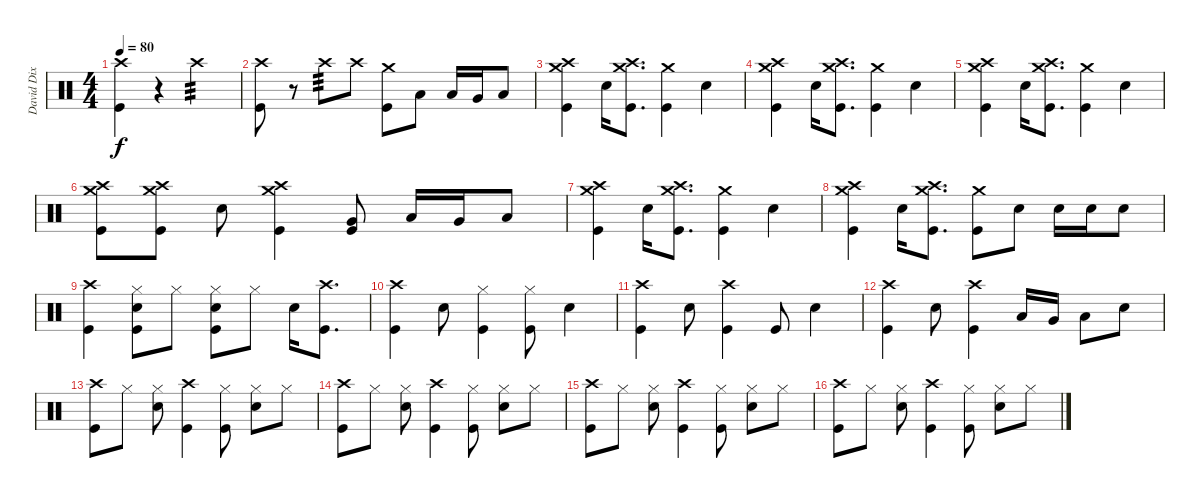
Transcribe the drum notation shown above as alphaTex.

\track ("David Dix Drums" "David Dix ") {instrument percussion}
\staff {score}
\articulation defaults
\ts (4 4)
\tempo 80
\clef neutral
\ks c
("Crash high (hit)" "Kick (hit)").4{dy f} r.4 "Crash high (hit)".2{tp 3} |
("Crash high (hit)" "Kick (hit)").8 r.8 "Crash high (hit)".8{tp 3} "Crash high (hit)".8 ("Crash medium (hit)" "Kick (hit)").8 "Low Tom (hit)".8 "Low Tom (hit)".16 "Very Low Tom (hit)".16 "Low Floor Tom (hit)".8 |
("Crash high (hit)" "Crash medium (hit)" "Kick (hit)").4{volume 14} "Snare (hit) 2".16 ("Crash high (hit)" "Crash medium (hit)" "Kick (hit)").8{d} ("Crash medium (hit)" "Kick (hit)").4 "Snare (hit) 2".4 |
("Crash high (hit)" "Crash medium (hit)" "Kick (hit)").4 "Snare (hit) 2".16 ("Crash high (hit)" "Crash medium (hit)" "Kick (hit)").8{d} ("Crash medium (hit)" "Kick (hit)").4 "Snare (hit) 2".4 |
("Crash high (hit)" "Crash medium (hit)" "Kick (hit)").4 "Snare (hit) 2".16 ("Crash high (hit)" "Crash medium (hit)" "Kick (hit)").8{d} ("Crash medium (hit)" "Kick (hit)").4 "Snare (hit) 2".4 |
("Crash high (hit)" "Crash medium (hit)" "Kick (hit)").8 ("Crash high (hit)" "Crash medium (hit)" "Kick (hit)").8 "Snare (hit) 2".8 ("Crash high (hit)" "Crash medium (hit)" "Kick (hit)").4 ("Very Low Tom (hit)" "Kick (hit)").8 "Low Tom (hit)".16 "Very Low Tom (hit)".16 "Low Floor Tom (hit)".8 |
("Crash high (hit)" "Crash medium (hit)" "Kick (hit)").4 "Snare (hit) 2".16 ("Crash high (hit)" "Crash medium (hit)" "Kick (hit)").8{d} ("Crash medium (hit)" "Kick (hit)").4 "Snare (hit) 2".4 |
("Crash high (hit)" "Crash medium (hit)" "Kick (hit)").4 "Snare (hit) 2".16 ("Crash high (hit)" "Crash medium (hit)" "Kick (hit)").8{d} ("Crash medium (hit)" "Kick (hit)").8 "Snare (hit) 2".8 "Snare (hit) 2".16 "Snare (hit) 2".16 "Snare (hit) 2".8 |
("Crash high (hit)" "Kick (hit)").4 ("Hi-Hat (closed)" "Snare (hit) 2" "Kick (hit)").8 "Hi-Hat (closed)".8 ("Hi-Hat (closed)" "Snare (hit) 2" "Kick (hit)").8 "Hi-Hat (closed)".8 "Snare (hit) 2".16 ("Crash high (hit)" "Kick (hit)").8{d} |
("Crash high (hit)" "Kick (hit)").4 "Snare (hit) 2".8 ("Hi-Hat (closed)" "Kick (hit)").4 ("Hi-Hat (closed)" "Kick (hit)").8 "Snare (hit) 2".4 |
("Crash high (hit)" "Kick (hit)").4 "Snare (hit) 2".8 ("Crash high (hit)" "Kick (hit)").4 "Kick (hit)".8 "Snare (hit) 2".4 |
("Crash high (hit)" "Kick (hit)").4 "Snare (hit) 2".8 ("Crash high (hit)" "Kick (hit)").4 "Low Tom (hit)".16 "Very Low Tom (hit)".16 "Low Floor Tom (hit)".8 "Snare (hit) 2".8 |
("Crash high (hit)" "Kick (hit)").8 "Hi-Hat (closed)".8 ("Hi-Hat (closed)" "Snare (hit) 2").8 ("Crash high (hit)" "Kick (hit)").4 ("Hi-Hat (closed)" "Kick (hit)").8 ("Hi-Hat (closed)" "Snare (hit) 2").8 "Hi-Hat (closed)".8 |
("Crash high (hit)" "Kick (hit)").8 "Hi-Hat (closed)".8 ("Hi-Hat (closed)" "Snare (hit) 2").8 ("Crash high (hit)" "Kick (hit)").4 ("Hi-Hat (closed)" "Kick (hit)").8 ("Hi-Hat (closed)" "Snare (hit) 2").8 "Hi-Hat (closed)".8 |
("Crash high (hit)" "Kick (hit)").8 "Hi-Hat (closed)".8 ("Hi-Hat (closed)" "Snare (hit) 2").8 ("Crash high (hit)" "Kick (hit)").4 ("Hi-Hat (closed)" "Kick (hit)").8 ("Hi-Hat (closed)" "Snare (hit) 2").8 "Hi-Hat (closed)".8 |
("Crash high (hit)" "Kick (hit)").8 "Hi-Hat (closed)".8 ("Hi-Hat (closed)" "Snare (hit) 2").8 ("Crash high (hit)" "Kick (hit)").4 ("Hi-Hat (closed)" "Kick (hit)").8 ("Hi-Hat (closed)" "Snare (hit) 2").8 "Hi-Hat (closed)".8
